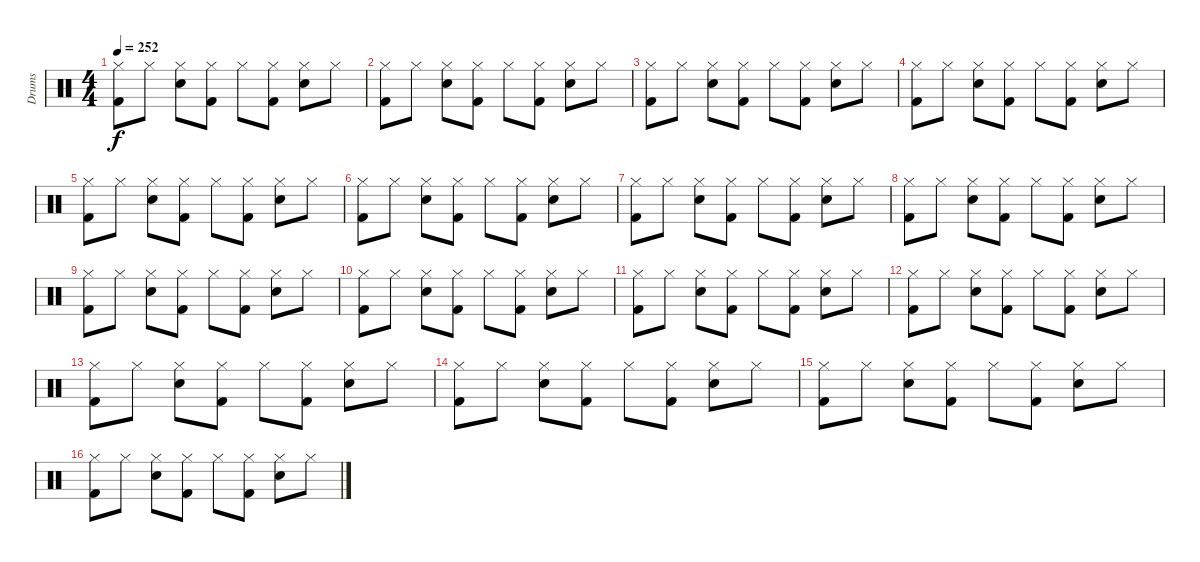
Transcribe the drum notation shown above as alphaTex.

\track ("Drums" "Drums") {instrument percussion}
\staff {score}
\articulation defaults
\ts (4 4)
\tempo 252
\clef neutral
\ks c
("Kick (hit) 2" "Hi-Hat (closed)").8{dy f} "Hi-Hat (closed)".8 ("Snare (hit) 2" "Hi-Hat (closed)").8 ("Kick (hit) 2" "Hi-Hat (closed)").8 "Hi-Hat (closed)".8 ("Kick (hit) 2" "Hi-Hat (closed)").8 ("Snare (hit) 2" "Hi-Hat (closed)").8 "Hi-Hat (closed)".8 |
("Kick (hit) 2" "Hi-Hat (closed)").8 "Hi-Hat (closed)".8 ("Snare (hit) 2" "Hi-Hat (closed)").8 ("Kick (hit) 2" "Hi-Hat (closed)").8 "Hi-Hat (closed)".8 ("Kick (hit) 2" "Hi-Hat (closed)").8 ("Snare (hit) 2" "Hi-Hat (closed)").8 "Hi-Hat (closed)".8 |
("Kick (hit) 2" "Hi-Hat (closed)").8 "Hi-Hat (closed)".8 ("Snare (hit) 2" "Hi-Hat (closed)").8 ("Kick (hit) 2" "Hi-Hat (closed)").8 "Hi-Hat (closed)".8 ("Kick (hit) 2" "Hi-Hat (closed)").8 ("Snare (hit) 2" "Hi-Hat (closed)").8 "Hi-Hat (closed)".8 |
("Kick (hit) 2" "Hi-Hat (closed)").8 "Hi-Hat (closed)".8 ("Snare (hit) 2" "Hi-Hat (closed)").8 ("Kick (hit) 2" "Hi-Hat (closed)").8 "Hi-Hat (closed)".8 ("Kick (hit) 2" "Hi-Hat (closed)").8 ("Snare (hit) 2" "Hi-Hat (closed)").8 "Hi-Hat (closed)".8 |
("Kick (hit) 2" "Hi-Hat (closed)").8 "Hi-Hat (closed)".8 ("Snare (hit) 2" "Hi-Hat (closed)").8 ("Kick (hit) 2" "Hi-Hat (closed)").8 "Hi-Hat (closed)".8 ("Kick (hit) 2" "Hi-Hat (closed)").8 ("Snare (hit) 2" "Hi-Hat (closed)").8 "Hi-Hat (closed)".8 |
("Kick (hit) 2" "Hi-Hat (closed)").8 "Hi-Hat (closed)".8 ("Snare (hit) 2" "Hi-Hat (closed)").8 ("Kick (hit) 2" "Hi-Hat (closed)").8 "Hi-Hat (closed)".8 ("Kick (hit) 2" "Hi-Hat (closed)").8 ("Snare (hit) 2" "Hi-Hat (closed)").8 "Hi-Hat (closed)".8 |
("Kick (hit) 2" "Hi-Hat (closed)").8 "Hi-Hat (closed)".8 ("Snare (hit) 2" "Hi-Hat (closed)").8 ("Kick (hit) 2" "Hi-Hat (closed)").8 "Hi-Hat (closed)".8 ("Kick (hit) 2" "Hi-Hat (closed)").8 ("Snare (hit) 2" "Hi-Hat (closed)").8 "Hi-Hat (closed)".8 |
("Kick (hit) 2" "Hi-Hat (closed)").8 "Hi-Hat (closed)".8 ("Snare (hit) 2" "Hi-Hat (closed)").8 ("Kick (hit) 2" "Hi-Hat (closed)").8 "Hi-Hat (closed)".8 ("Kick (hit) 2" "Hi-Hat (closed)").8 ("Snare (hit) 2" "Hi-Hat (closed)").8 "Hi-Hat (closed)".8 |
("Kick (hit) 2" "Hi-Hat (closed)").8 "Hi-Hat (closed)".8 ("Snare (hit) 2" "Hi-Hat (closed)").8 ("Kick (hit) 2" "Hi-Hat (closed)").8 "Hi-Hat (closed)".8 ("Kick (hit) 2" "Hi-Hat (closed)").8 ("Snare (hit) 2" "Hi-Hat (closed)").8 "Hi-Hat (closed)".8 |
("Kick (hit) 2" "Hi-Hat (closed)").8 "Hi-Hat (closed)".8 ("Snare (hit) 2" "Hi-Hat (closed)").8 ("Kick (hit) 2" "Hi-Hat (closed)").8 "Hi-Hat (closed)".8 ("Kick (hit) 2" "Hi-Hat (closed)").8 ("Snare (hit) 2" "Hi-Hat (closed)").8 "Hi-Hat (closed)".8 |
("Kick (hit) 2" "Hi-Hat (closed)").8 "Hi-Hat (closed)".8 ("Snare (hit) 2" "Hi-Hat (closed)").8 ("Kick (hit) 2" "Hi-Hat (closed)").8 "Hi-Hat (closed)".8 ("Kick (hit) 2" "Hi-Hat (closed)").8 ("Snare (hit) 2" "Hi-Hat (closed)").8 "Hi-Hat (closed)".8 |
("Kick (hit) 2" "Hi-Hat (closed)").8 "Hi-Hat (closed)".8 ("Snare (hit) 2" "Hi-Hat (closed)").8 ("Kick (hit) 2" "Hi-Hat (closed)").8 "Hi-Hat (closed)".8 ("Kick (hit) 2" "Hi-Hat (closed)").8 ("Snare (hit) 2" "Hi-Hat (closed)").8 "Hi-Hat (closed)".8 |
("Kick (hit) 2" "Hi-Hat (closed)").8 "Hi-Hat (closed)".8 ("Snare (hit) 2" "Hi-Hat (closed)").8 ("Kick (hit) 2" "Hi-Hat (closed)").8 "Hi-Hat (closed)".8 ("Kick (hit) 2" "Hi-Hat (closed)").8 ("Snare (hit) 2" "Hi-Hat (closed)").8 "Hi-Hat (closed)".8 |
("Kick (hit) 2" "Hi-Hat (closed)").8 "Hi-Hat (closed)".8 ("Snare (hit) 2" "Hi-Hat (closed)").8 ("Kick (hit) 2" "Hi-Hat (closed)").8 "Hi-Hat (closed)".8 ("Kick (hit) 2" "Hi-Hat (closed)").8 ("Snare (hit) 2" "Hi-Hat (closed)").8 "Hi-Hat (closed)".8 |
("Kick (hit) 2" "Hi-Hat (closed)").8 "Hi-Hat (closed)".8 ("Snare (hit) 2" "Hi-Hat (closed)").8 ("Kick (hit) 2" "Hi-Hat (closed)").8 "Hi-Hat (closed)".8 ("Kick (hit) 2" "Hi-Hat (closed)").8 ("Snare (hit) 2" "Hi-Hat (closed)").8 "Hi-Hat (closed)".8 |
("Kick (hit) 2" "Hi-Hat (closed)").8 "Hi-Hat (closed)".8 ("Snare (hit) 2" "Hi-Hat (closed)").8 ("Kick (hit) 2" "Hi-Hat (closed)").8 "Hi-Hat (closed)".8 ("Kick (hit) 2" "Hi-Hat (closed)").8 ("Snare (hit) 2" "Hi-Hat (closed)").8 "Hi-Hat (closed)".8
